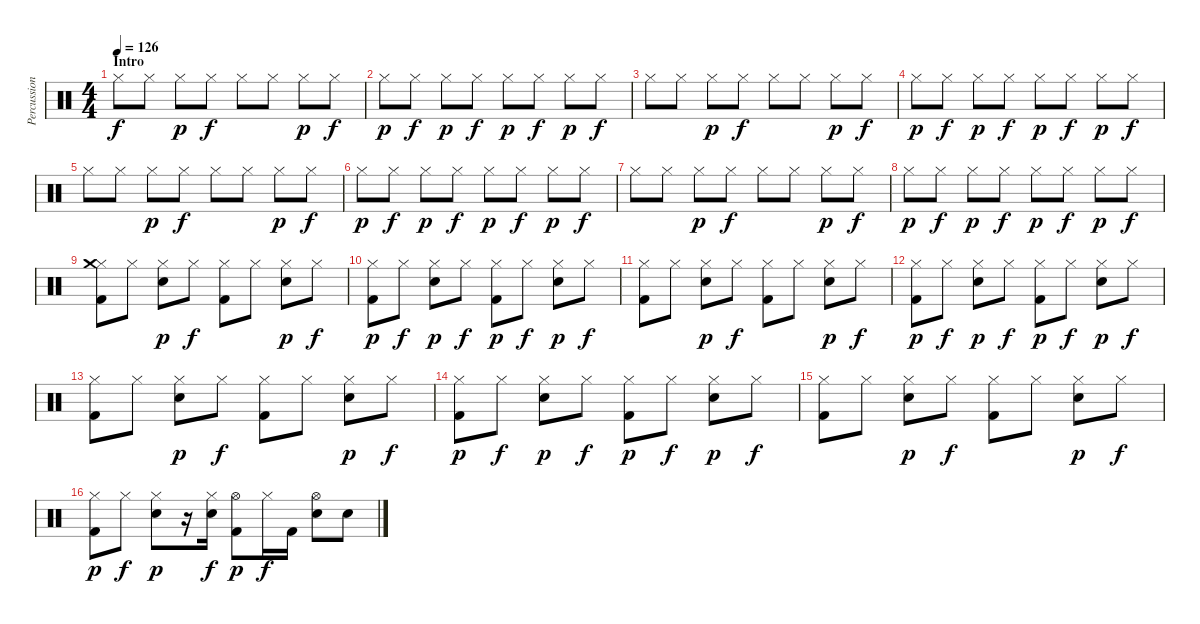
\track ("Percussion" "Percussion") {instrument percussion}
\staff {score}
\articulation defaults
\ts (4 4)
\section ("" "Intro")
\tempo 126
\clef neutral
\ks c "Hi-Hat (closed)".8{dy f} "Hi-Hat (closed)".8 "Hi-Hat (closed)".8{dy p} "Hi-Hat (closed)".8{dy f} "Hi-Hat (closed)".8 "Hi-Hat (closed)".8 "Hi-Hat (closed)".8{dy p} "Hi-Hat (closed)".8{dy f}
|
"Hi-Hat (closed)".8{dy p} "Hi-Hat (closed)".8{dy f} "Hi-Hat (closed)".8{dy p} "Hi-Hat (closed)".8{dy f} "Hi-Hat (closed)".8{dy p} "Hi-Hat (closed)".8{dy f} "Hi-Hat (closed)".8{dy p} "Hi-Hat (closed)".8{dy f} |
"Hi-Hat (closed)".8 "Hi-Hat (closed)".8 "Hi-Hat (closed)".8{dy p} "Hi-Hat (closed)".8{dy f} "Hi-Hat (closed)".8 "Hi-Hat (closed)".8 "Hi-Hat (closed)".8{dy p} "Hi-Hat (closed)".8{dy f} |
"Hi-Hat (closed)".8{dy p} "Hi-Hat (closed)".8{dy f} "Hi-Hat (closed)".8{dy p} "Hi-Hat (closed)".8{dy f} "Hi-Hat (closed)".8{dy p} "Hi-Hat (closed)".8{dy f} "Hi-Hat (closed)".8{dy p} "Hi-Hat (closed)".8{dy f} |
"Hi-Hat (closed)".8 "Hi-Hat (closed)".8 "Hi-Hat (closed)".8{dy p} "Hi-Hat (closed)".8{dy f} "Hi-Hat (closed)".8 "Hi-Hat (closed)".8 "Hi-Hat (closed)".8{dy p} "Hi-Hat (closed)".8{dy f} |
"Hi-Hat (closed)".8{dy p} "Hi-Hat (closed)".8{dy f} "Hi-Hat (closed)".8{dy p} "Hi-Hat (closed)".8{dy f} "Hi-Hat (closed)".8{dy p} "Hi-Hat (closed)".8{dy f} "Hi-Hat (closed)".8{dy p} "Hi-Hat (closed)".8{dy f} |
"Hi-Hat (closed)".8 "Hi-Hat (closed)".8 "Hi-Hat (closed)".8{dy p} "Hi-Hat (closed)".8{dy f} "Hi-Hat (closed)".8 "Hi-Hat (closed)".8 "Hi-Hat (closed)".8{dy p} "Hi-Hat (closed)".8{dy f} |
"Hi-Hat (closed)".8{dy p} "Hi-Hat (closed)".8{dy f} "Hi-Hat (closed)".8{dy p} "Hi-Hat (closed)".8{dy f} "Hi-Hat (closed)".8{dy p} "Hi-Hat (closed)".8{dy f} "Hi-Hat (closed)".8{dy p} "Hi-Hat (closed)".8{dy f} |
("Hi-Hat (closed)" "Crash medium (hit)" "Kick (hit) 2").8 "Hi-Hat (closed)".8 ("Hi-Hat (closed)" "Snare (hit) 2").8{dy p} "Hi-Hat (closed)".8{dy f} ("Hi-Hat (closed)" "Kick (hit) 2").8 "Hi-Hat (closed)".8 ("Hi-Hat (closed)" "Snare (hit) 2").8{dy p} "Hi-Hat (closed)".8{dy f} |
("Hi-Hat (closed)" "Kick (hit) 2").8{dy p} "Hi-Hat (closed)".8{dy f} ("Hi-Hat (closed)" "Snare (hit) 2").8{dy p} "Hi-Hat (closed)".8{dy f} ("Hi-Hat (closed)" "Kick (hit) 2").8{dy p} "Hi-Hat (closed)".8{dy f} ("Hi-Hat (closed)" "Snare (hit) 2").8{dy p} "Hi-Hat (closed)".8{dy f} |
("Hi-Hat (closed)" "Kick (hit) 2").8 "Hi-Hat (closed)".8 ("Hi-Hat (closed)" "Snare (hit) 2").8{dy p} "Hi-Hat (closed)".8{dy f} ("Hi-Hat (closed)" "Kick (hit) 2").8 "Hi-Hat (closed)".8 ("Hi-Hat (closed)" "Snare (hit) 2").8{dy p} "Hi-Hat (closed)".8{dy f} |
("Hi-Hat (closed)" "Kick (hit) 2").8{dy p} "Hi-Hat (closed)".8{dy f} ("Hi-Hat (closed)" "Snare (hit) 2").8{dy p} "Hi-Hat (closed)".8{dy f} ("Hi-Hat (closed)" "Kick (hit) 2").8{dy p} "Hi-Hat (closed)".8{dy f} ("Hi-Hat (closed)" "Snare (hit) 2").8{dy p} "Hi-Hat (closed)".8{dy f} |
("Hi-Hat (closed)" "Kick (hit) 2").8 "Hi-Hat (closed)".8 ("Hi-Hat (closed)" "Snare (hit) 2").8{dy p} "Hi-Hat (closed)".8{dy f} ("Hi-Hat (closed)" "Kick (hit) 2").8 "Hi-Hat (closed)".8 ("Hi-Hat (closed)" "Snare (hit) 2").8{dy p} "Hi-Hat (closed)".8{dy f} |
("Hi-Hat (closed)" "Kick (hit) 2").8{dy p} "Hi-Hat (closed)".8{dy f} ("Hi-Hat (closed)" "Snare (hit) 2").8{dy p} "Hi-Hat (closed)".8{dy f} ("Hi-Hat (closed)" "Kick (hit) 2").8{dy p} "Hi-Hat (closed)".8{dy f} ("Hi-Hat (closed)" "Snare (hit) 2").8{dy p} "Hi-Hat (closed)".8{dy f} |
("Hi-Hat (closed)" "Kick (hit) 2").8 "Hi-Hat (closed)".8 ("Hi-Hat (closed)" "Snare (hit) 2").8{dy p} "Hi-Hat (closed)".8{dy f} ("Hi-Hat (closed)" "Kick (hit) 2").8 "Hi-Hat (closed)".8 ("Hi-Hat (closed)" "Snare (hit) 2").8{dy p} "Hi-Hat (closed)".8{dy f} |
("Hi-Hat (closed)" "Kick (hit) 2").8{dy p} "Hi-Hat (closed)".8{dy f} ("Hi-Hat (closed)" "Snare (hit) 2").8{dy p} r.16 ("Hi-Hat (closed)" "Snare (hit) 2").16{dy f} ("Hi-Hat (open)" "Kick (hit) 2").8{dy p} "Hi-Hat (closed)".16{dy f} "Kick (hit) 2".16 ("Hi-Hat (open)" "Snare (hit) 2").8 "Snare (hit) 2".8
